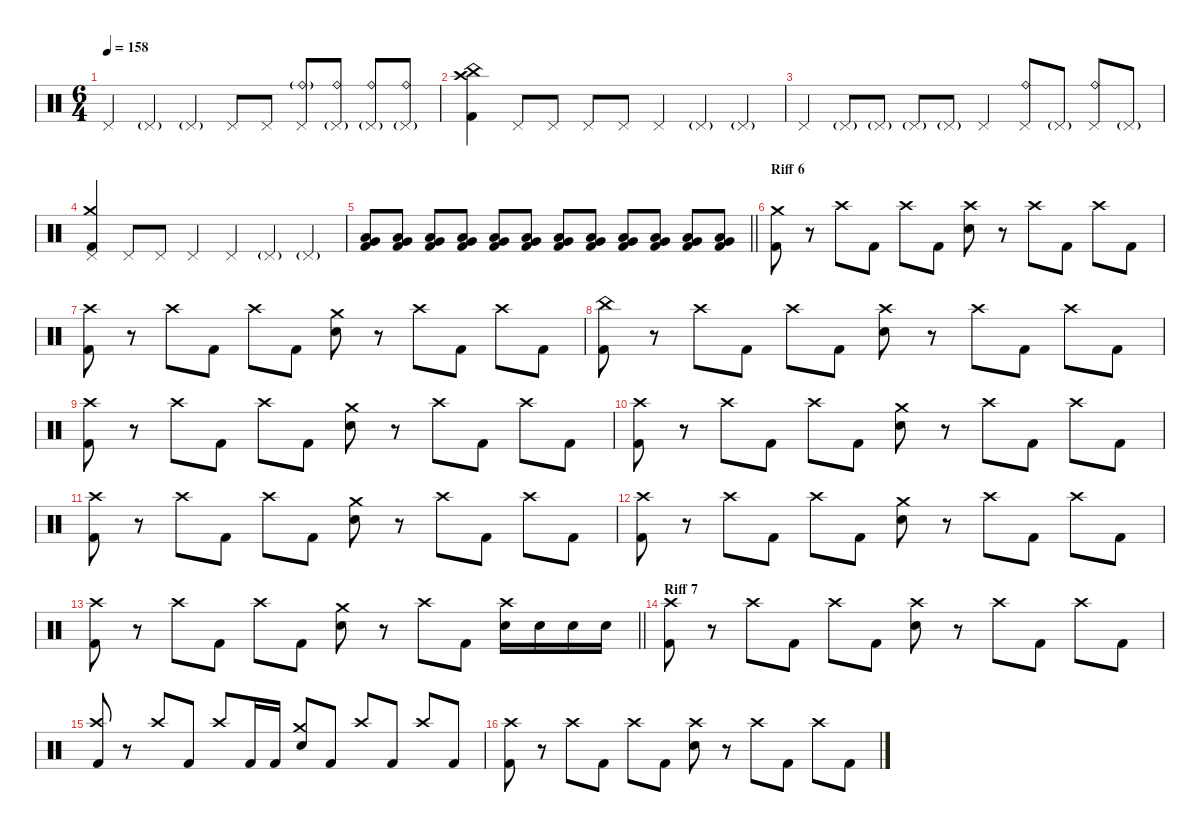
\defaultSystemsLayout 4
\hideDynamics
\bracketExtendMode nobrackets
\singleTrackTrackNamePolicy hidden
\multiTrackTrackNamePolicy hidden
\firstSystemTrackNameMode fullname
\firstSystemTrackNameOrientation horizontal
\otherSystemsTrackNameOrientation horizontal
\track ("Drums" "drm.") {defaultSystemsLayout 4 instrument percussion}
\staff {score}
\articulation defaults
\ts (6 4)
\tempo 158
\clef neutral
\ks c "Pedal Hi-Hat (hit)".4{dy f beam Up} "Pedal Hi-Hat (hit)"{g}.4{dy mf beam Up} "Pedal Hi-Hat (hit)"{g}.4{beam Up} "Pedal Hi-Hat (hit)".8{dy f beam Up} "Pedal Hi-Hat (hit)".8{beam Up}
("Pedal Hi-Hat (hit)" "Ride (bell)"{g}).8{beam Up} ("Pedal Hi-Hat (hit)"{g} "Ride (bell)").8{beam Up} ("Pedal Hi-Hat (hit)"{g} "Ride (bell)").8{beam Up} ("Pedal Hi-Hat (hit)"{g} "Ride (bell)").8{beam Up} |
("China (hit)" "Crash high (hit)" "Kick (hit) 2").4{beam Down} "Pedal Hi-Hat (hit)".8{beam Up} "Pedal Hi-Hat (hit)".8{beam Up} "Pedal Hi-Hat (hit)".8{beam Up} "Pedal Hi-Hat (hit)".8{beam Up} "Pedal Hi-Hat (hit)".4{beam Up} "Pedal Hi-Hat (hit)"{g}.4{dy mf beam Up} "Pedal Hi-Hat (hit)"{g}.4{beam Up} |
"Pedal Hi-Hat (hit)".4{dy f beam Up} "Pedal Hi-Hat (hit)"{g}.8{dy mf beam Up} "Pedal Hi-Hat (hit)"{g}.8{beam Up} "Pedal Hi-Hat (hit)"{g}.8{beam Up} "Pedal Hi-Hat (hit)"{g}.8{beam Up} "Pedal Hi-Hat (hit)".4{dy f beam Up} ("Pedal Hi-Hat (hit)" "Ride (bell)").8{beam Up} "Pedal Hi-Hat (hit)"{g}.8{dy mf beam Up} ("Pedal Hi-Hat (hit)" "Ride (bell)").8{dy f beam Up} "Pedal Hi-Hat (hit)"{g}.8{dy mf beam Up} |
("Crash medium (hit)" "Pedal Hi-Hat (hit)" "Kick (hit) 2").4{dy f beam Up} "Pedal Hi-Hat (hit)".8{beam Up} "Pedal Hi-Hat (hit)".8{beam Up} "Pedal Hi-Hat (hit)".4{beam Up} "Pedal Hi-Hat (hit)".4{beam Up} "Pedal Hi-Hat (hit)"{g}.4{dy mf beam Up} "Pedal Hi-Hat (hit)"{g}.4{beam Up} |
\barLineRight lightlight
("Very Low Tom (hit)" "Low Tom (hit)" "Kick (hit) 2").8{dy f beam Up} ("Very Low Tom (hit)" "Low Tom (hit)" "Kick (hit) 2").8{beam Up} ("Very Low Tom (hit)" "Low Tom (hit)" "Kick (hit) 2").8{beam Up} ("Very Low Tom (hit)" "Low Tom (hit)" "Kick (hit) 2").8{beam Up} ("Very Low Tom (hit)" "Low Tom (hit)" "Kick (hit) 2").8{beam Up} ("Very Low Tom (hit)" "Low Tom (hit)" "Kick (hit) 2").8{beam Up} ("Very Low Tom (hit)" "Low Tom (hit)" "Kick (hit) 2").8{beam Up} ("Very Low Tom (hit)" "Low Tom (hit)" "Kick (hit) 2").8{beam Up} ("Very Low Tom (hit)" "Low Tom (hit)" "Kick (hit) 2").8{beam Up} ("Very Low Tom (hit)" "Low Tom (hit)" "Kick (hit) 2").8{beam Up} ("Very Low Tom (hit)" "Low Tom (hit)" "Kick (hit) 2").8{beam Up} ("Very Low Tom (hit)" "Low Tom (hit)" "Kick (hit) 2").8{beam Up} |
\section ("" "Riff 6")
("Crash medium (hit)" "Kick (hit) 2").8{beam Down} r.8{beam Down} "Crash high (hit)".8{beam Down} "Kick (hit) 2".8{beam Down} "Crash high (hit)".8{beam Down} "Kick (hit) 2".8{beam Down} ("Crash high (hit)" "Snare (hit) 2").8{beam Down} r.8{beam Down} "Crash high (hit)".8{beam Down} "Kick (hit) 2".8{beam Down} "Crash high (hit)".8{beam Down} "Kick (hit) 2".8{beam Down} |
("Crash high (hit)" "Kick (hit) 2").8{beam Down} r.8{beam Down} "Crash high (hit)".8{beam Down} "Kick (hit) 2".8{beam Down} "Crash high (hit)".8{beam Down} "Kick (hit) 2".8{beam Down} ("Crash medium (hit)" "Snare (hit) 2").8{beam Down} r.8{beam Down} "Crash high (hit)".8{beam Down} "Kick (hit) 2".8{beam Down} "Crash high (hit)".8{beam Down} "Kick (hit) 2".8{beam Down} |
("China (hit)" "Kick (hit) 2").8{beam Down} r.8{beam Down} "Crash high (hit)".8{beam Down} "Kick (hit) 2".8{beam Down} "Crash high (hit)".8{beam Down} "Kick (hit) 2".8{beam Down} ("Crash high (hit)" "Snare (hit) 2").8{beam Down} r.8{beam Down} "Crash high (hit)".8{beam Down} "Kick (hit) 2".8{beam Down} "Crash high (hit)".8{beam Down} "Kick (hit) 2".8{beam Down} |
("Crash high (hit)" "Kick (hit) 2").8{beam Down} r.8{beam Down} "Crash high (hit)".8{beam Down} "Kick (hit) 2".8{beam Down} "Crash high (hit)".8{beam Down} "Kick (hit) 2".8{beam Down} ("Crash medium (hit)" "Snare (hit) 2").8{beam Down} r.8{beam Down} "Crash high (hit)".8{beam Down} "Kick (hit) 2".8{beam Down} "Crash high (hit)".8{beam Down} "Kick (hit) 2".8{beam Down} |
("Crash high (hit)" "Kick (hit) 2").8{beam Down} r.8{beam Down} "Crash high (hit)".8{beam Down} "Kick (hit) 2".8{beam Down} "Crash high (hit)".8{beam Down} "Kick (hit) 2".8{beam Down} ("Crash medium (hit)" "Snare (hit) 2").8{beam Down} r.8{beam Down} "Crash high (hit)".8{beam Down} "Kick (hit) 2".8{beam Down} "Crash high (hit)".8{beam Down} "Kick (hit) 2".8{beam Down} |
("Crash high (hit)" "Kick (hit) 2").8{beam Down} r.8{beam Down} "Crash high (hit)".8{beam Down} "Kick (hit) 2".8{beam Down} "Crash high (hit)".8{beam Down} "Kick (hit) 2".8{beam Down} ("Crash medium (hit)" "Snare (hit) 2").8{beam Down} r.8{beam Down} "Crash high (hit)".8{beam Down} "Kick (hit) 2".8{beam Down} "Crash high (hit)".8{beam Down} "Kick (hit) 2".8{beam Down} |
("Crash high (hit)" "Kick (hit) 2").8{beam Down} r.8{beam Down} "Crash high (hit)".8{beam Down} "Kick (hit) 2".8{beam Down} "Crash high (hit)".8{beam Down} "Kick (hit) 2".8{beam Down} ("Crash medium (hit)" "Snare (hit) 2").8{beam Down} r.8{beam Down} "Crash high (hit)".8{beam Down} "Kick (hit) 2".8{beam Down} "Crash high (hit)".8{beam Down} "Kick (hit) 2".8{beam Down} |
\barLineRight lightlight
("Crash high (hit)" "Kick (hit) 2").8{beam Down} r.8{beam Down} "Crash high (hit)".8{beam Down} "Kick (hit) 2".8{beam Down} "Crash high (hit)".8{beam Down} "Kick (hit) 2".8{beam Down} ("Crash medium (hit)" "Snare (hit) 2").8{beam Down} r.8{beam Down} "Crash high (hit)".8{beam Down} "Kick (hit) 2".8{beam Down} ("Crash high (hit)" "Snare (hit) 2").16{beam Down} "Snare (hit) 2".16{beam Down} "Snare (hit) 2".16{beam Down} "Snare (hit) 2".16{beam Down} |
\section ("" "Riff 7")
("Crash high (hit)" "Kick (hit) 2").8{beam Down} r.8{beam Down} "Crash high (hit)".8{beam Down} "Kick (hit) 2".8{beam Down} "Crash high (hit)".8{beam Down} "Kick (hit) 2".8{beam Down} ("Crash high (hit)" "Snare (hit) 2").8{beam Down} r.8{beam Down} "Crash high (hit)".8{beam Down} "Kick (hit) 2".8{beam Down} "Crash high (hit)".8{beam Down} "Kick (hit) 2".8{beam Down} |
("Crash high (hit)" "Kick (hit) 2").8{beam Up} r.8{beam Up} "Crash high (hit)".8{beam Up} "Kick (hit) 2".8{beam Up} "Crash high (hit)".8{beam Up} "Kick (hit) 2".16{beam Up} "Kick (hit) 2".16{beam Up} ("Crash medium (hit)" "Snare (hit) 2").8{beam Up} "Kick (hit) 2".8{beam Up} "Crash high (hit)".8{beam Up} "Kick (hit) 2".8{beam Up} "Crash high (hit)".8{beam Up} "Kick (hit) 2".8{beam Up} |
("Crash high (hit)" "Kick (hit) 2").8{beam Down} r.8{beam Down} "Crash high (hit)".8{beam Down} "Kick (hit) 2".8{beam Down} "Crash high (hit)".8{beam Down} "Kick (hit) 2".8{beam Down} ("Crash high (hit)" "Snare (hit) 2").8{beam Down} r.8{beam Down} "Crash high (hit)".8{beam Down} "Kick (hit) 2".8{beam Down} "Crash high (hit)".8{beam Down} "Kick (hit) 2".8{beam Down}
